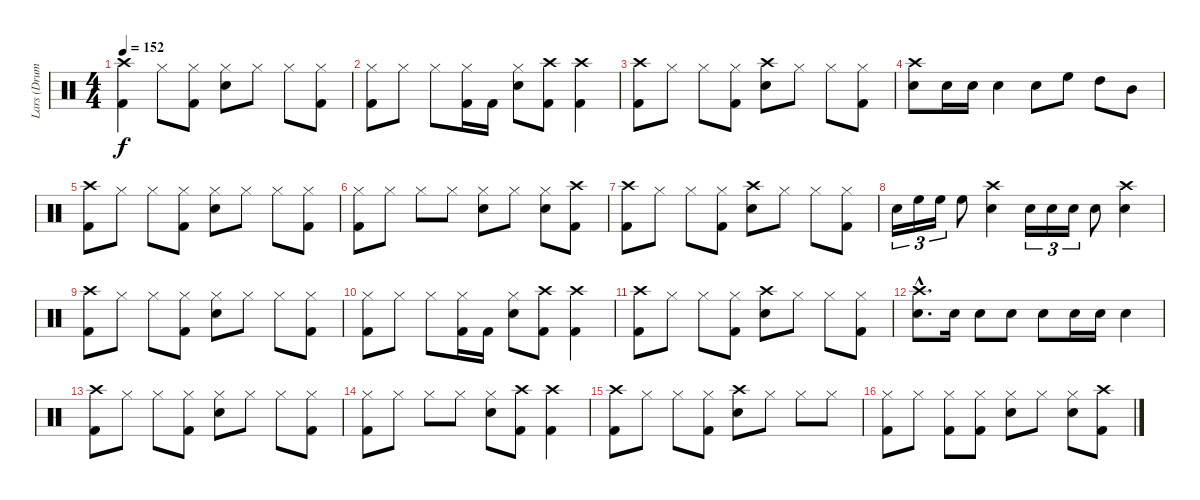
\track ("Lars (Drums)" "Lars (Drum") {instrument percussion}
\staff {score}
\articulation defaults
\ts (4 4)
\tempo 152
\clef neutral
\ks c
("Crash high (hit)" "Kick (hit) 2").4{dy f} "Hi-Hat (closed)".8 ("Hi-Hat (closed)" "Kick (hit) 2").8 ("Hi-Hat (closed)" "Snare (hit) 2").8 "Hi-Hat (closed)".8 "Hi-Hat (closed)".8 ("Hi-Hat (closed)" "Kick (hit) 2").8 |
("Hi-Hat (closed)" "Kick (hit) 2").8 "Hi-Hat (closed)".8 "Hi-Hat (closed)".8 ("Hi-Hat (closed)" "Kick (hit) 2").16 "Kick (hit) 2".16 ("Hi-Hat (closed)" "Snare (hit) 2").8 ("Crash high (hit)" "Kick (hit) 2").8 ("Crash high (hit)" "Kick (hit) 2").4 |
("Crash high (hit)" "Kick (hit) 2").8 "Hi-Hat (closed)".8 "Hi-Hat (closed)".8 ("Hi-Hat (closed)" "Kick (hit) 2").8 ("Crash high (hit)" "Snare (hit) 2").8 "Hi-Hat (closed)".8 "Hi-Hat (closed)".8 ("Hi-Hat (closed)" "Kick (hit) 2").8 |
("Crash high (hit)" "Snare (hit) 2").8 "Snare (hit) 2".16 "Snare (hit) 2".16 "Snare (hit) 2".4 "Snare (hit) 2".8 "High Floor Tom (hit)".8 "High Tom (hit)".8 "Mid Tom (hit)".8 |
("Crash high (hit)" "Kick (hit) 2").8 "Hi-Hat (closed)".8 "Hi-Hat (closed)".8 ("Hi-Hat (closed)" "Kick (hit) 2").8 ("Hi-Hat (closed)" "Snare (hit) 2").8 "Hi-Hat (closed)".8 "Hi-Hat (closed)".8 ("Hi-Hat (closed)" "Kick (hit) 2").8 |
("Hi-Hat (closed)" "Kick (hit) 2").8 "Hi-Hat (closed)".8 "Hi-Hat (closed)".8 "Hi-Hat (closed)".8 ("Hi-Hat (closed)" "Snare (hit) 2").8 "Hi-Hat (closed)".8 ("Hi-Hat (closed)" "Snare (hit) 2").8 ("Crash high (hit)" "Kick (hit) 2").8 |
("Crash high (hit)" "Kick (hit) 2").8 "Hi-Hat (closed)".8 "Hi-Hat (closed)".8 ("Hi-Hat (closed)" "Kick (hit) 2").8 ("Crash high (hit)" "Snare (hit) 2").8 "Hi-Hat (closed)".8 "Hi-Hat (closed)".8 ("Hi-Hat (closed)" "Kick (hit) 2").8 |
"Snare (hit) 2".16{tu (3 2)} "High Floor Tom (hit)".16{tu (3 2)} "High Floor Tom (hit)".16{tu (3 2)} "High Floor Tom (hit)".8 ("Snare (hit) 2" "Crash high (hit)").4 "Snare (hit) 2".16{tu (3 2)} "Snare (hit) 2".16{tu (3 2)} "Snare (hit) 2".16{tu (3 2)} "Snare (hit) 2".8 ("Crash high (hit)" "Snare (hit) 2").4 |
("Crash high (hit)" "Kick (hit) 2").8 "Hi-Hat (closed)".8 "Hi-Hat (closed)".8 ("Hi-Hat (closed)" "Kick (hit) 2").8 ("Hi-Hat (closed)" "Snare (hit) 2").8 "Hi-Hat (closed)".8 "Hi-Hat (closed)".8 ("Hi-Hat (closed)" "Kick (hit) 2").8 |
("Hi-Hat (closed)" "Kick (hit) 2").8 "Hi-Hat (closed)".8 "Hi-Hat (closed)".8 ("Hi-Hat (closed)" "Kick (hit) 2").16 "Kick (hit) 2".16 ("Hi-Hat (closed)" "Snare (hit) 2").8 ("Crash high (hit)" "Kick (hit) 2").8 ("Crash high (hit)" "Kick (hit) 2").4 |
("Crash high (hit)" "Kick (hit) 2").8 "Hi-Hat (closed)".8 "Hi-Hat (closed)".8 ("Hi-Hat (closed)" "Kick (hit) 2").8 ("Crash high (hit)" "Snare (hit) 2").8 "Hi-Hat (closed)".8 "Hi-Hat (closed)".8 ("Hi-Hat (closed)" "Kick (hit) 2").8 |
("Crash high (hit)"{hac} "Snare (hit) 2"{hac}).8{d} "Snare (hit) 2".16 "Snare (hit) 2".8 "Snare (hit) 2".8 "Snare (hit) 2".8 "Snare (hit) 2".16 "Snare (hit) 2".16 "Snare (hit) 2".4 |
("Crash high (hit)" "Kick (hit) 2").8 "Hi-Hat (closed)".8 "Hi-Hat (closed)".8 ("Hi-Hat (closed)" "Kick (hit) 2").8 ("Hi-Hat (closed)" "Snare (hit) 2").8 "Hi-Hat (closed)".8 "Hi-Hat (closed)".8 ("Hi-Hat (closed)" "Kick (hit) 2").8 |
("Hi-Hat (closed)" "Kick (hit) 2").8 "Hi-Hat (closed)".8 "Hi-Hat (closed)".8 "Hi-Hat (closed)".8 ("Hi-Hat (closed)" "Snare (hit) 2").8 ("Crash high (hit)" "Kick (hit) 2").8 ("Crash high (hit)" "Kick (hit) 2").4 |
("Crash high (hit)" "Kick (hit) 2").8 "Hi-Hat (closed)".8 "Hi-Hat (closed)".8 ("Hi-Hat (closed)" "Kick (hit) 2").8 ("Crash high (hit)" "Snare (hit) 2").8 "Hi-Hat (closed)".8 "Hi-Hat (closed)".8 "Hi-Hat (closed)".8 |
("Hi-Hat (closed)" "Kick (hit) 2").8 "Hi-Hat (closed)".8 ("Hi-Hat (closed)" "Kick (hit) 2").8 ("Hi-Hat (closed)" "Kick (hit) 2").8 ("Hi-Hat (closed)" "Snare (hit) 2").8 "Hi-Hat (closed)".8 ("Hi-Hat (closed)" "Snare (hit) 2").8 ("Crash high (hit)" "Kick (hit) 2").8
